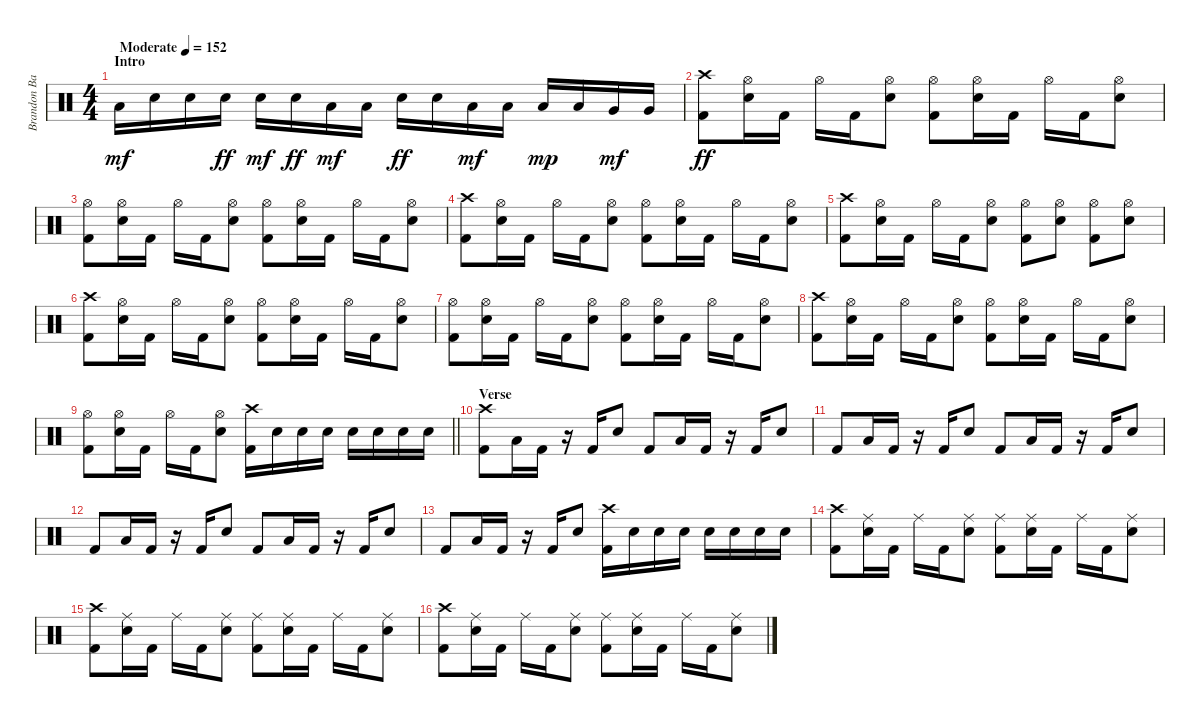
\track ("Brandon Barnes - Drums" "Brandon Ba") {instrument percussion}
\staff {score}
\articulation defaults
\ts (4 4)
\section ("" "Intro")
\tempo (152 "Moderate")
\clef neutral
\ks c "Low Tom (hit)".16{dy mf} "Snare (hit) 2".16 "Snare (hit) 2".16 "Snare (hit) 2".16{dy ff} "Snare (hit) 2".16{dy mf} "Snare (hit) 2".16{dy ff} "Low Tom (hit)".16{dy mf} "Low Tom (hit)".16 "Snare (hit) 2".16{dy ff} "Snare (hit) 2".16 "Low Tom (hit)".16{dy mf} "Low Tom (hit)".16 "Low Tom (hit)".16{dy mp} "Low Tom (hit)".16 "Very Low Tom (hit)".16{dy mf} "Very Low Tom (hit)".16
|
("Kick (hit) 2" "Crash high (hit)").8{dy ff} ("Snare (hit) 2" "Hi-Hat (open)").16 "Kick (hit) 2".16 "Hi-Hat (open)".16 "Kick (hit) 2".16 ("Snare (hit) 2" "Hi-Hat (open)").8 ("Kick (hit) 2" "Hi-Hat (open)").8 ("Snare (hit) 2" "Hi-Hat (open)").16 "Kick (hit) 2".16 "Hi-Hat (open)".16 "Kick (hit) 2".16 ("Snare (hit) 2" "Hi-Hat (open)").8 |
("Kick (hit) 2" "Hi-Hat (open)").8 ("Snare (hit) 2" "Hi-Hat (open)").16 "Kick (hit) 2".16 "Hi-Hat (open)".16 "Kick (hit) 2".16 ("Snare (hit) 2" "Hi-Hat (open)").8 ("Kick (hit) 2" "Hi-Hat (open)").8 ("Snare (hit) 2" "Hi-Hat (open)").16 "Kick (hit) 2".16 "Hi-Hat (open)".16 "Kick (hit) 2".16 ("Snare (hit) 2" "Hi-Hat (open)").8 |
("Kick (hit) 2" "Crash high (hit)").8 ("Snare (hit) 2" "Hi-Hat (open)").16 "Kick (hit) 2".16 "Hi-Hat (open)".16 "Kick (hit) 2".16 ("Snare (hit) 2" "Hi-Hat (open)").8 ("Kick (hit) 2" "Hi-Hat (open)").8 ("Snare (hit) 2" "Hi-Hat (open)").16 "Kick (hit) 2".16 "Hi-Hat (open)".16 "Kick (hit) 2".16 ("Snare (hit) 2" "Hi-Hat (open)").8 |
("Kick (hit) 2" "Crash high (hit)").8 ("Snare (hit) 2" "Hi-Hat (open)").16 "Kick (hit) 2".16 "Hi-Hat (open)".16 "Kick (hit) 2".16 ("Snare (hit) 2" "Hi-Hat (open)").8 ("Kick (hit) 2" "Hi-Hat (open)").8 ("Snare (hit) 2" "Hi-Hat (open)").8 ("Kick (hit) 2" "Hi-Hat (open)").8 ("Snare (hit) 2" "Hi-Hat (open)").8 |
("Kick (hit) 2" "Crash high (hit)").8 ("Snare (hit) 2" "Hi-Hat (open)").16 "Kick (hit) 2".16 "Hi-Hat (open)".16 "Kick (hit) 2".16 ("Snare (hit) 2" "Hi-Hat (open)").8 ("Kick (hit) 2" "Hi-Hat (open)").8 ("Snare (hit) 2" "Hi-Hat (open)").16 "Kick (hit) 2".16 "Hi-Hat (open)".16 "Kick (hit) 2".16 ("Snare (hit) 2" "Hi-Hat (open)").8 |
("Kick (hit) 2" "Hi-Hat (open)").8 ("Snare (hit) 2" "Hi-Hat (open)").16 "Kick (hit) 2".16 "Hi-Hat (open)".16 "Kick (hit) 2".16 ("Snare (hit) 2" "Hi-Hat (open)").8 ("Kick (hit) 2" "Hi-Hat (open)").8 ("Snare (hit) 2" "Hi-Hat (open)").16 "Kick (hit) 2".16 "Hi-Hat (open)".16 "Kick (hit) 2".16 ("Snare (hit) 2" "Hi-Hat (open)").8 |
("Kick (hit) 2" "Crash high (hit)").8 ("Snare (hit) 2" "Hi-Hat (open)").16 "Kick (hit) 2".16 "Hi-Hat (open)".16 "Kick (hit) 2".16 ("Snare (hit) 2" "Hi-Hat (open)").8 ("Kick (hit) 2" "Hi-Hat (open)").8 ("Snare (hit) 2" "Hi-Hat (open)").16 "Kick (hit) 2".16 "Hi-Hat (open)".16 "Kick (hit) 2".16 ("Snare (hit) 2" "Hi-Hat (open)").8 |
\barLineRight lightlight
("Kick (hit) 2" "Hi-Hat (open)").8 ("Snare (hit) 2" "Hi-Hat (open)").16 "Kick (hit) 2".16 "Hi-Hat (open)".16 "Kick (hit) 2".16 ("Snare (hit) 2" "Hi-Hat (open)").8 ("Kick (hit) 2" "Crash high (hit)").16 "Snare (hit) 2".16 "Snare (hit) 2".16 "Snare (hit) 2".16 "Snare (hit) 2".16 "Snare (hit) 2".16 "Snare (hit) 2".16 "Snare (hit) 2".16 |
\section ("" "Verse")
("Crash high (hit)" "Kick (hit) 2").8 "Low Tom (hit)".16 "Kick (hit) 2".16 r.16 "Kick (hit) 2".16 "Snare (hit) 2".8 "Kick (hit) 2".8 "Low Tom (hit)".16 "Kick (hit) 2".16 r.16 "Kick (hit) 2".16 "Snare (hit) 2".8 |
"Kick (hit) 2".8 "Low Tom (hit)".16 "Kick (hit) 2".16 r.16 "Kick (hit) 2".16 "Snare (hit) 2".8 "Kick (hit) 2".8 "Low Tom (hit)".16 "Kick (hit) 2".16 r.16 "Kick (hit) 2".16 "Snare (hit) 2".8 |
"Kick (hit) 2".8 "Low Tom (hit)".16 "Kick (hit) 2".16 r.16 "Kick (hit) 2".16 "Snare (hit) 2".8 "Kick (hit) 2".8 "Low Tom (hit)".16 "Kick (hit) 2".16 r.16 "Kick (hit) 2".16 "Snare (hit) 2".8 |
"Kick (hit) 2".8 "Low Tom (hit)".16 "Kick (hit) 2".16 r.16 "Kick (hit) 2".16 "Snare (hit) 2".8 ("Crash high (hit)" "Kick (hit) 2").16 "Snare (hit) 2".16 "Snare (hit) 2".16 "Snare (hit) 2".16 "Snare (hit) 2".16 "Snare (hit) 2".16 "Snare (hit) 2".16 "Snare (hit) 2".16 |
("Crash high (hit)" "Kick (hit) 2").8 ("Snare (hit) 2" "Ride (middle)").16 "Kick (hit) 2".16 "Ride (middle)".16 "Kick (hit) 2".16 ("Snare (hit) 2" "Ride (middle)").8 ("Ride (middle)" "Kick (hit) 2").8 ("Snare (hit) 2" "Ride (middle)").16 "Kick (hit) 2".16 "Ride (middle)".16 "Kick (hit) 2".16 ("Snare (hit) 2" "Ride (middle)").8 |
("Crash high (hit)" "Kick (hit) 2").8 ("Snare (hit) 2" "Ride (middle)").16 "Kick (hit) 2".16 "Ride (middle)".16 "Kick (hit) 2".16 ("Snare (hit) 2" "Ride (middle)").8 ("Ride (middle)" "Kick (hit) 2").8 ("Snare (hit) 2" "Ride (middle)").16 "Kick (hit) 2".16 "Ride (middle)".16 "Kick (hit) 2".16 ("Snare (hit) 2" "Ride (middle)").8 |
("Crash high (hit)" "Kick (hit) 2").8 ("Snare (hit) 2" "Ride (middle)").16 "Kick (hit) 2".16 "Ride (middle)".16 "Kick (hit) 2".16 ("Snare (hit) 2" "Ride (middle)").8 ("Ride (middle)" "Kick (hit) 2").8 ("Snare (hit) 2" "Ride (middle)").16 "Kick (hit) 2".16 "Ride (middle)".16 "Kick (hit) 2".16 ("Snare (hit) 2" "Ride (middle)").8
